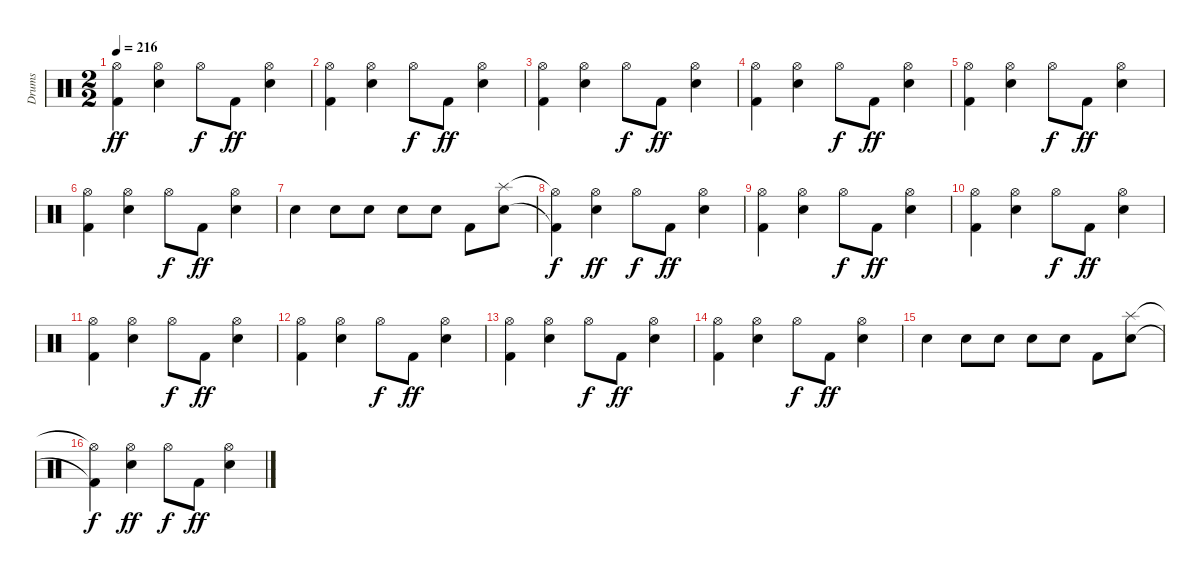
\track ("Drums" "Drums") {instrument percussion}
\staff {score}
\articulation defaults
\ts (2 2)
\tempo 216
\clef neutral
\ks c
("Kick (hit) 2" "Hi-Hat (open)").4{dy ff} ("Electric Snare (hit)" "Hi-Hat (open)").4 "Hi-Hat (open)".8{dy f} "Kick (hit) 2".8{dy ff} ("Electric Snare (hit)" "Hi-Hat (open)").4 |
("Kick (hit) 2" "Hi-Hat (open)").4 ("Electric Snare (hit)" "Hi-Hat (open)").4 "Hi-Hat (open)".8{dy f} "Kick (hit) 2".8{dy ff} ("Electric Snare (hit)" "Hi-Hat (open)").4 |
("Kick (hit) 2" "Hi-Hat (open)").4 ("Electric Snare (hit)" "Hi-Hat (open)").4 "Hi-Hat (open)".8{dy f} "Kick (hit) 2".8{dy ff} ("Electric Snare (hit)" "Hi-Hat (open)").4 |
("Kick (hit) 2" "Hi-Hat (open)").4 ("Electric Snare (hit)" "Hi-Hat (open)").4 "Hi-Hat (open)".8{dy f} "Kick (hit) 2".8{dy ff} ("Electric Snare (hit)" "Hi-Hat (open)").4 |
("Kick (hit) 2" "Hi-Hat (open)").4 ("Electric Snare (hit)" "Hi-Hat (open)").4 "Hi-Hat (open)".8{dy f} "Kick (hit) 2".8{dy ff} ("Electric Snare (hit)" "Hi-Hat (open)").4 |
("Kick (hit) 2" "Hi-Hat (open)").4 ("Electric Snare (hit)" "Hi-Hat (open)").4 "Hi-Hat (open)".8{dy f} "Kick (hit) 2".8{dy ff} ("Electric Snare (hit)" "Hi-Hat (open)").4 |
"Electric Snare (hit)".4 "Electric Snare (hit)".8 "Electric Snare (hit)".8 "Electric Snare (hit)".8 "Electric Snare (hit)".8 "Kick (hit) 2".8 ("Electric Snare (hit)" "Splash (hit)").8 |
("Kick (hit) 2"{t} "Hi-Hat (open)"{t}).4{dy f} ("Electric Snare (hit)" "Hi-Hat (open)").4{dy ff} "Hi-Hat (open)".8{dy f} "Kick (hit) 2".8{dy ff} ("Electric Snare (hit)" "Hi-Hat (open)").4 |
("Kick (hit) 2" "Hi-Hat (open)").4 ("Electric Snare (hit)" "Hi-Hat (open)").4 "Hi-Hat (open)".8{dy f} "Kick (hit) 2".8{dy ff} ("Electric Snare (hit)" "Hi-Hat (open)").4 |
("Kick (hit) 2" "Hi-Hat (open)").4 ("Electric Snare (hit)" "Hi-Hat (open)").4 "Hi-Hat (open)".8{dy f} "Kick (hit) 2".8{dy ff} ("Electric Snare (hit)" "Hi-Hat (open)").4 |
("Kick (hit) 2" "Hi-Hat (open)").4 ("Electric Snare (hit)" "Hi-Hat (open)").4 "Hi-Hat (open)".8{dy f} "Kick (hit) 2".8{dy ff} ("Electric Snare (hit)" "Hi-Hat (open)").4 |
("Kick (hit) 2" "Hi-Hat (open)").4 ("Electric Snare (hit)" "Hi-Hat (open)").4 "Hi-Hat (open)".8{dy f} "Kick (hit) 2".8{dy ff} ("Electric Snare (hit)" "Hi-Hat (open)").4 |
("Kick (hit) 2" "Hi-Hat (open)").4 ("Electric Snare (hit)" "Hi-Hat (open)").4 "Hi-Hat (open)".8{dy f} "Kick (hit) 2".8{dy ff} ("Electric Snare (hit)" "Hi-Hat (open)").4 |
("Kick (hit) 2" "Hi-Hat (open)").4 ("Electric Snare (hit)" "Hi-Hat (open)").4 "Hi-Hat (open)".8{dy f} "Kick (hit) 2".8{dy ff} ("Electric Snare (hit)" "Hi-Hat (open)").4 |
"Electric Snare (hit)".4 "Electric Snare (hit)".8 "Electric Snare (hit)".8 "Electric Snare (hit)".8 "Electric Snare (hit)".8 "Kick (hit) 2".8 ("Electric Snare (hit)" "Splash (hit)").8 |
("Kick (hit) 2"{t} "Hi-Hat (open)"{t}).4{dy f} ("Electric Snare (hit)" "Hi-Hat (open)").4{dy ff} "Hi-Hat (open)".8{dy f} "Kick (hit) 2".8{dy ff} ("Electric Snare (hit)" "Hi-Hat (open)").4
